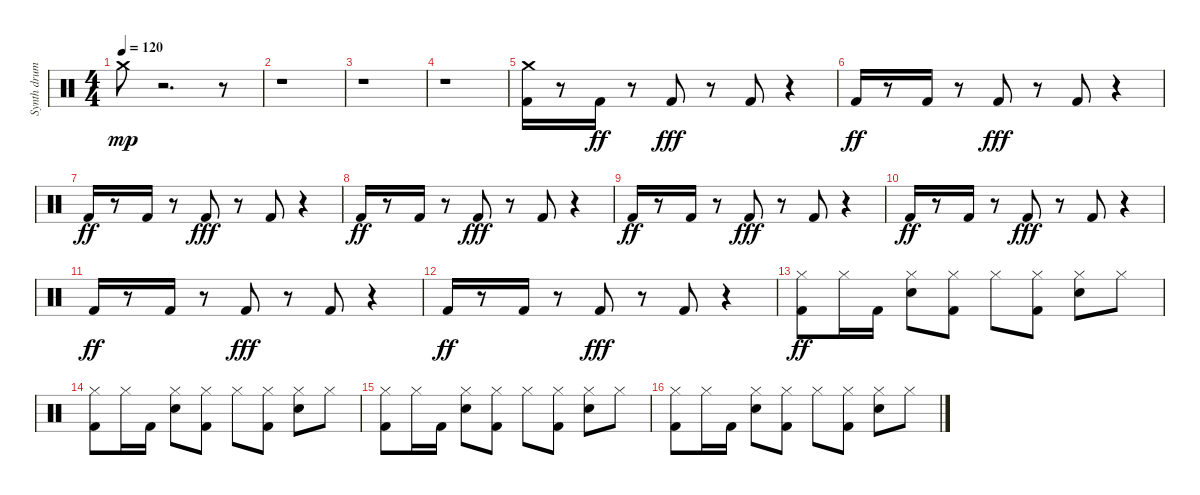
\track ("Synth drums" "Synth drum") {instrument percussion}
\staff {score}
\articulation defaults
\ts (4 4)
\tempo 120
\clef neutral
\ks c "Crash medium (hit)".8{dy mp}
r.2{d} r.8 |
r.1 |
r.1 |
r.1 |
("Kick (hit) 2" "Crash medium (hit)").16 r.8 "Kick (hit) 2".16{dy ff} r.8 "Kick (hit) 2".8{dy fff} r.8 "Kick (hit) 2".8 r.4 |
"Kick (hit) 2".16{dy ff} r.8 "Kick (hit) 2".16 r.8 "Kick (hit) 2".8{dy fff} r.8 "Kick (hit) 2".8 r.4 |
"Kick (hit) 2".16{dy ff} r.8 "Kick (hit) 2".16 r.8 "Kick (hit) 2".8{dy fff} r.8 "Kick (hit) 2".8 r.4 |
"Kick (hit) 2".16{dy ff} r.8 "Kick (hit) 2".16 r.8 "Kick (hit) 2".8{dy fff} r.8 "Kick (hit) 2".8 r.4 |
"Kick (hit) 2".16{dy ff} r.8 "Kick (hit) 2".16 r.8 "Kick (hit) 2".8{dy fff} r.8 "Kick (hit) 2".8 r.4 |
"Kick (hit) 2".16{dy ff} r.8 "Kick (hit) 2".16 r.8 "Kick (hit) 2".8{dy fff} r.8 "Kick (hit) 2".8 r.4 |
"Kick (hit) 2".16{dy ff} r.8 "Kick (hit) 2".16 r.8 "Kick (hit) 2".8{dy fff} r.8 "Kick (hit) 2".8 r.4 |
"Kick (hit) 2".16{dy ff} r.8 "Kick (hit) 2".16 r.8 "Kick (hit) 2".8{dy fff} r.8 "Kick (hit) 2".8 r.4 |
("Kick (hit) 2" "Hi-Hat (closed)").8{dy ff} "Hi-Hat (closed)".16 "Kick (hit) 2".16 ("Snare (hit) 2" "Hi-Hat (closed)").8 ("Kick (hit) 2" "Hi-Hat (closed)").8 "Hi-Hat (closed)".8 ("Kick (hit) 2" "Hi-Hat (closed)").8 ("Snare (hit) 2" "Hi-Hat (closed)").8 "Hi-Hat (closed)".8 |
("Kick (hit) 2" "Hi-Hat (closed)").8 "Hi-Hat (closed)".16 "Kick (hit) 2".16 ("Snare (hit) 2" "Hi-Hat (closed)").8 ("Kick (hit) 2" "Hi-Hat (closed)").8 "Hi-Hat (closed)".8 ("Kick (hit) 2" "Hi-Hat (closed)").8 ("Snare (hit) 2" "Hi-Hat (closed)").8 "Hi-Hat (closed)".8 |
("Kick (hit) 2" "Hi-Hat (closed)").8 "Hi-Hat (closed)".16 "Kick (hit) 2".16 ("Snare (hit) 2" "Hi-Hat (closed)").8 ("Kick (hit) 2" "Hi-Hat (closed)").8 "Hi-Hat (closed)".8 ("Kick (hit) 2" "Hi-Hat (closed)").8 ("Snare (hit) 2" "Hi-Hat (closed)").8 "Hi-Hat (closed)".8 |
("Kick (hit) 2" "Hi-Hat (closed)").8 "Hi-Hat (closed)".16 "Kick (hit) 2".16 ("Snare (hit) 2" "Hi-Hat (closed)").8 ("Kick (hit) 2" "Hi-Hat (closed)").8 "Hi-Hat (closed)".8 ("Kick (hit) 2" "Hi-Hat (closed)").8 ("Snare (hit) 2" "Hi-Hat (closed)").8 "Hi-Hat (closed)".8
